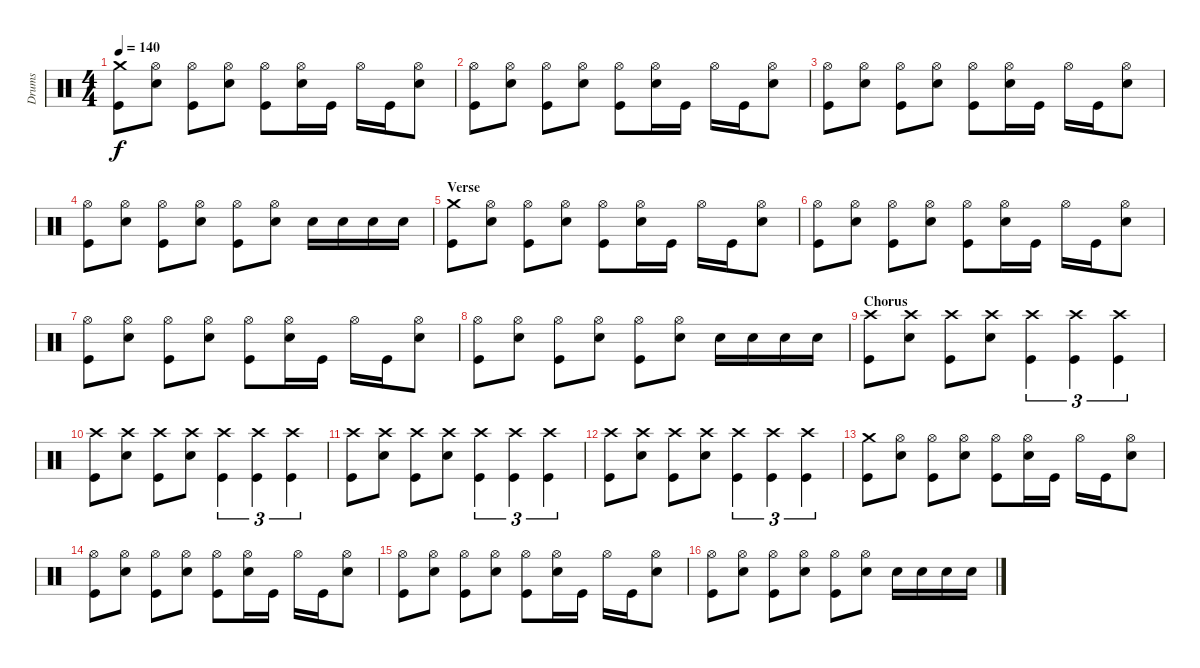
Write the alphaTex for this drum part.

\track ("Drums" "Drums") {instrument percussion}
\staff {score}
\articulation defaults
\ts (4 4)
\tempo 140
\clef neutral
\ks c
("Crash medium (hit)" "Kick (hit)").8{dy f} ("Hi-Hat (open)" "Snare (hit) 2").8 ("Hi-Hat (open)" "Kick (hit)").8 ("Hi-Hat (open)" "Snare (hit) 2").8 ("Hi-Hat (open)" "Kick (hit)").8 ("Hi-Hat (open)" "Snare (hit) 2").16 "Kick (hit)".16 "Hi-Hat (open)".16 "Kick (hit)".16 ("Hi-Hat (open)" "Snare (hit) 2").8 |
("Hi-Hat (open)" "Kick (hit)").8 ("Hi-Hat (open)" "Snare (hit) 2").8 ("Hi-Hat (open)" "Kick (hit)").8 ("Hi-Hat (open)" "Snare (hit) 2").8 ("Hi-Hat (open)" "Kick (hit)").8 ("Hi-Hat (open)" "Snare (hit) 2").16 "Kick (hit)".16 "Hi-Hat (open)".16 "Kick (hit)".16 ("Hi-Hat (open)" "Snare (hit) 2").8 |
("Hi-Hat (open)" "Kick (hit)").8 ("Hi-Hat (open)" "Snare (hit) 2").8 ("Hi-Hat (open)" "Kick (hit)").8 ("Hi-Hat (open)" "Snare (hit) 2").8 ("Hi-Hat (open)" "Kick (hit)").8 ("Hi-Hat (open)" "Snare (hit) 2").16 "Kick (hit)".16 "Hi-Hat (open)".16 "Kick (hit)".16 ("Hi-Hat (open)" "Snare (hit) 2").8 |
("Hi-Hat (open)" "Kick (hit)").8 ("Hi-Hat (open)" "Snare (hit) 2").8 ("Hi-Hat (open)" "Kick (hit)").8 ("Hi-Hat (open)" "Snare (hit) 2").8 ("Hi-Hat (open)" "Kick (hit)").8 ("Hi-Hat (open)" "Snare (hit) 2").8 "Snare (hit) 2".16 "Snare (hit) 2".16 "Snare (hit) 2".16 "Snare (hit) 2".16 |
\section ("" "Verse")
("Crash medium (hit)" "Kick (hit)").8 ("Hi-Hat (open)" "Snare (hit) 2").8 ("Hi-Hat (open)" "Kick (hit)").8 ("Hi-Hat (open)" "Snare (hit) 2").8 ("Hi-Hat (open)" "Kick (hit)").8 ("Hi-Hat (open)" "Snare (hit) 2").16 "Kick (hit)".16 "Hi-Hat (open)".16 "Kick (hit)".16 ("Hi-Hat (open)" "Snare (hit) 2").8 |
("Hi-Hat (open)" "Kick (hit)").8 ("Hi-Hat (open)" "Snare (hit) 2").8 ("Hi-Hat (open)" "Kick (hit)").8 ("Hi-Hat (open)" "Snare (hit) 2").8 ("Hi-Hat (open)" "Kick (hit)").8 ("Hi-Hat (open)" "Snare (hit) 2").16 "Kick (hit)".16 "Hi-Hat (open)".16 "Kick (hit)".16 ("Hi-Hat (open)" "Snare (hit) 2").8 |
("Hi-Hat (open)" "Kick (hit)").8 ("Hi-Hat (open)" "Snare (hit) 2").8 ("Hi-Hat (open)" "Kick (hit)").8 ("Hi-Hat (open)" "Snare (hit) 2").8 ("Hi-Hat (open)" "Kick (hit)").8 ("Hi-Hat (open)" "Snare (hit) 2").16 "Kick (hit)".16 "Hi-Hat (open)".16 "Kick (hit)".16 ("Hi-Hat (open)" "Snare (hit) 2").8 |
("Hi-Hat (open)" "Kick (hit)").8 ("Hi-Hat (open)" "Snare (hit) 2").8 ("Hi-Hat (open)" "Kick (hit)").8 ("Hi-Hat (open)" "Snare (hit) 2").8 ("Hi-Hat (open)" "Kick (hit)").8 ("Hi-Hat (open)" "Snare (hit) 2").8 "Snare (hit) 2".16 "Snare (hit) 2".16 "Snare (hit) 2".16 "Snare (hit) 2".16 |
\section ("" "Chorus")
("Crash high (hit)" "Kick (hit)").8 ("Crash high (hit)" "Snare (hit) 2").8 ("Crash high (hit)" "Kick (hit)").8 ("Crash high (hit)" "Snare (hit) 2").8 ("Crash high (hit)" "Kick (hit)").4{tu (3 2)} ("Crash high (hit)" "Kick (hit)").4{tu (3 2)} ("Crash high (hit)" "Kick (hit)").4{tu (3 2)} |
("Crash high (hit)" "Kick (hit)").8 ("Crash high (hit)" "Snare (hit) 2").8 ("Crash high (hit)" "Kick (hit)").8 ("Crash high (hit)" "Snare (hit) 2").8 ("Crash high (hit)" "Kick (hit)").4{tu (3 2)} ("Crash high (hit)" "Kick (hit)").4{tu (3 2)} ("Crash high (hit)" "Kick (hit)").4{tu (3 2)} |
("Crash high (hit)" "Kick (hit)").8 ("Crash high (hit)" "Snare (hit) 2").8 ("Crash high (hit)" "Kick (hit)").8 ("Crash high (hit)" "Snare (hit) 2").8 ("Crash high (hit)" "Kick (hit)").4{tu (3 2)} ("Crash high (hit)" "Kick (hit)").4{tu (3 2)} ("Crash high (hit)" "Kick (hit)").4{tu (3 2)} |
("Crash high (hit)" "Kick (hit)").8 ("Crash high (hit)" "Snare (hit) 2").8 ("Crash high (hit)" "Kick (hit)").8 ("Crash high (hit)" "Snare (hit) 2").8 ("Crash high (hit)" "Kick (hit)").4{tu (3 2)} ("Crash high (hit)" "Kick (hit)").4{tu (3 2)} ("Crash high (hit)" "Kick (hit)").4{tu (3 2)} |
("Crash medium (hit)" "Kick (hit)").8 ("Hi-Hat (open)" "Snare (hit) 2").8 ("Hi-Hat (open)" "Kick (hit)").8 ("Hi-Hat (open)" "Snare (hit) 2").8 ("Hi-Hat (open)" "Kick (hit)").8 ("Hi-Hat (open)" "Snare (hit) 2").16 "Kick (hit)".16 "Hi-Hat (open)".16 "Kick (hit)".16 ("Hi-Hat (open)" "Snare (hit) 2").8 |
("Hi-Hat (open)" "Kick (hit)").8 ("Hi-Hat (open)" "Snare (hit) 2").8 ("Hi-Hat (open)" "Kick (hit)").8 ("Hi-Hat (open)" "Snare (hit) 2").8 ("Hi-Hat (open)" "Kick (hit)").8 ("Hi-Hat (open)" "Snare (hit) 2").16 "Kick (hit)".16 "Hi-Hat (open)".16 "Kick (hit)".16 ("Hi-Hat (open)" "Snare (hit) 2").8 |
("Hi-Hat (open)" "Kick (hit)").8 ("Hi-Hat (open)" "Snare (hit) 2").8 ("Hi-Hat (open)" "Kick (hit)").8 ("Hi-Hat (open)" "Snare (hit) 2").8 ("Hi-Hat (open)" "Kick (hit)").8 ("Hi-Hat (open)" "Snare (hit) 2").16 "Kick (hit)".16 "Hi-Hat (open)".16 "Kick (hit)".16 ("Hi-Hat (open)" "Snare (hit) 2").8 |
("Hi-Hat (open)" "Kick (hit)").8 ("Hi-Hat (open)" "Snare (hit) 2").8 ("Hi-Hat (open)" "Kick (hit)").8 ("Hi-Hat (open)" "Snare (hit) 2").8 ("Hi-Hat (open)" "Kick (hit)").8 ("Hi-Hat (open)" "Snare (hit) 2").8 "Snare (hit) 2".16 "Snare (hit) 2".16 "Snare (hit) 2".16 "Snare (hit) 2".16
